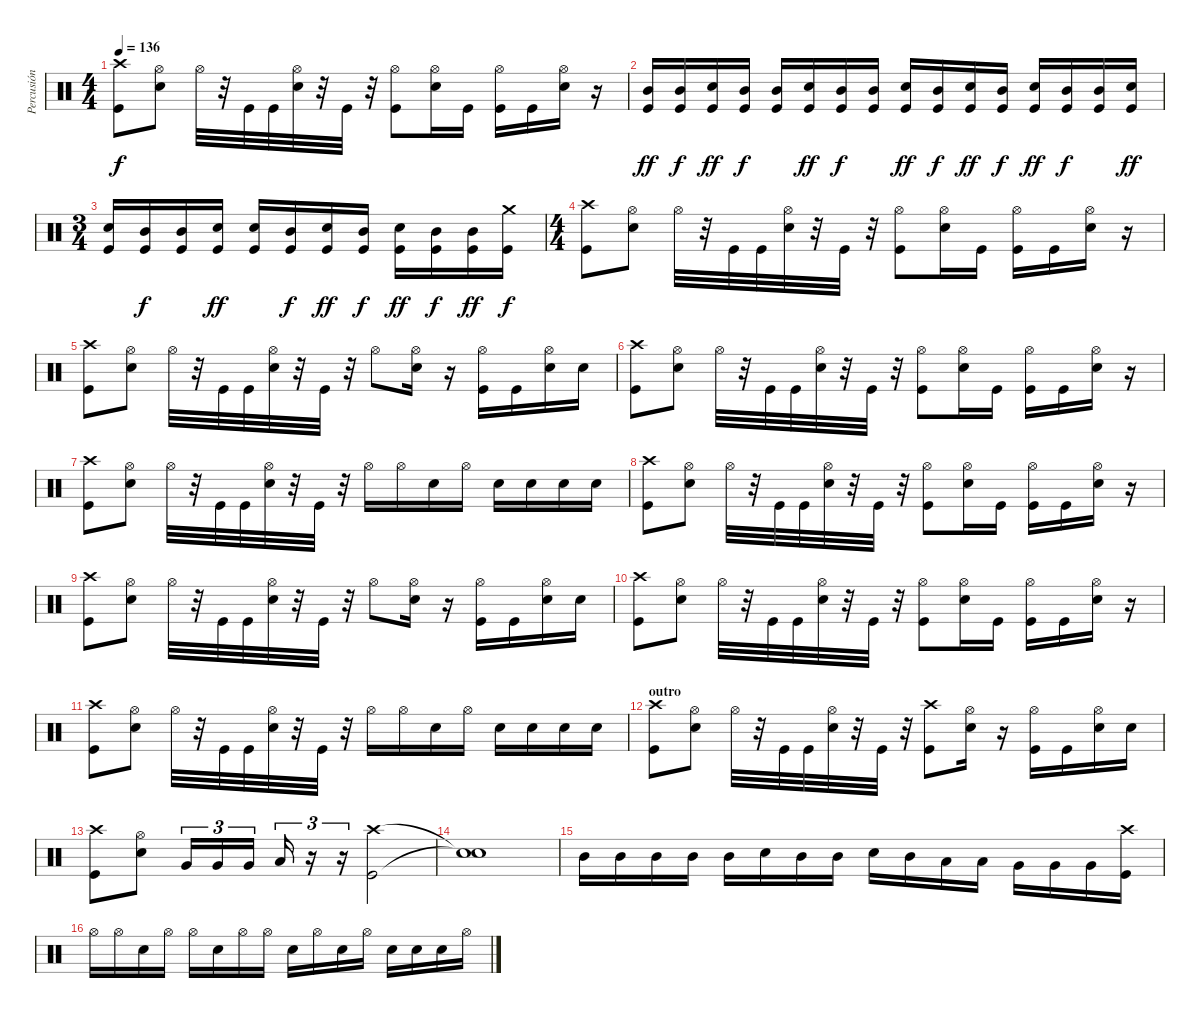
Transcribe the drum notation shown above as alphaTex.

\track ("Percusión" "Percusión") {instrument percussion}
\staff {score}
\articulation defaults
\ts (4 4)
\tempo 136
\clef neutral
\ks c
("Crash high (hit)" "Kick (hit)").8{dy f} ("Hi-Hat (open)" "Snare (hit) 2").8 "Hi-Hat (open)".32 r.32 "Kick (hit)".32 "Kick (hit)".32 ("Hi-Hat (open)" "Snare (hit) 2").32 r.32 "Kick (hit)".32 r.32 ("Hi-Hat (open)" "Kick (hit)").8 ("Hi-Hat (open)" "Snare (hit) 2").16 "Kick (hit)".16 ("Hi-Hat (open)" "Kick (hit)").16 "Kick (hit)".16 ("Hi-Hat (open)" "Snare (hit) 2").16 r.16 |
("Mid Tom (hit)" "Kick (hit)").16{dy ff} ("Mid Tom (hit)" "Kick (hit)").16{dy f} ("Electric Snare (hit)" "Kick (hit)").16{dy ff} ("Mid Tom (hit)" "Kick (hit)").16{dy f} ("Mid Tom (hit)" "Kick (hit)").16 ("Electric Snare (hit)" "Kick (hit)").16{dy ff} ("Mid Tom (hit)" "Kick (hit)").16{dy f} ("Mid Tom (hit)" "Kick (hit)").16 ("Electric Snare (hit)" "Kick (hit)").16{dy ff} ("Mid Tom (hit)" "Kick (hit)").16{dy f} ("Electric Snare (hit)" "Kick (hit)").16{dy ff} ("Mid Tom (hit)" "Kick (hit)").16{dy f} ("Electric Snare (hit)" "Kick (hit)").16{dy ff} ("Mid Tom (hit)" "Kick (hit)").16{dy f} ("Mid Tom (hit)" "Kick (hit)").16 ("Electric Snare (hit)" "Kick (hit)").16{dy ff} |
\ts (3 4)
("Electric Snare (hit)" "Kick (hit)").16 ("Mid Tom (hit)" "Kick (hit)").16{dy f} ("Mid Tom (hit)" "Kick (hit)").16 ("Electric Snare (hit)" "Kick (hit)").16{dy ff} ("Electric Snare (hit)" "Kick (hit)").16 ("Mid Tom (hit)" "Kick (hit)").16{dy f} ("Electric Snare (hit)" "Kick (hit)").16{dy ff} ("Mid Tom (hit)" "Kick (hit)").16{dy f} ("Electric Snare (hit)" "Kick (hit)").16{dy ff} ("Mid Tom (hit)" "Kick (hit)").16{dy f} ("Mid Tom (hit)" "Kick (hit)").16{dy ff} ("Crash medium (hit)" "Kick (hit)").16{dy f} |
\ts (4 4)
("Crash high (hit)" "Kick (hit)").8 ("Hi-Hat (open)" "Snare (hit) 2").8 "Hi-Hat (open)".32 r.32 "Kick (hit)".32 "Kick (hit)".32 ("Hi-Hat (open)" "Snare (hit) 2").32 r.32 "Kick (hit)".32 r.32 ("Hi-Hat (open)" "Kick (hit)").8 ("Hi-Hat (open)" "Snare (hit) 2").16 "Kick (hit)".16 ("Hi-Hat (open)" "Kick (hit)").16 "Kick (hit)".16 ("Hi-Hat (open)" "Snare (hit) 2").16 r.16 |
("Crash high (hit)" "Kick (hit)").8 ("Hi-Hat (open)" "Snare (hit) 2").8 "Hi-Hat (open)".32 r.32 "Kick (hit)".32 "Kick (hit)".32 ("Hi-Hat (open)" "Snare (hit) 2").32 r.32 "Kick (hit)".32 r.32 "Hi-Hat (open)".8 ("Hi-Hat (open)" "Snare (hit) 2").16 r.16 ("Hi-Hat (open)" "Kick (hit)").16 "Kick (hit)".16 ("Hi-Hat (open)" "Snare (hit) 2").16 "Snare (hit) 2".16 |
("Crash high (hit)" "Kick (hit)").8 ("Hi-Hat (open)" "Snare (hit) 2").8 "Hi-Hat (open)".32 r.32 "Kick (hit)".32 "Kick (hit)".32 ("Hi-Hat (open)" "Snare (hit) 2").32 r.32 "Kick (hit)".32 r.32 ("Hi-Hat (open)" "Kick (hit)").8 ("Hi-Hat (open)" "Snare (hit) 2").16 "Kick (hit)".16 ("Hi-Hat (open)" "Kick (hit)").16 "Kick (hit)".16 ("Hi-Hat (open)" "Snare (hit) 2").16 r.16 |
("Crash high (hit)" "Kick (hit)").8 ("Hi-Hat (open)" "Snare (hit) 2").8 "Hi-Hat (open)".32 r.32 "Kick (hit)".32 "Kick (hit)".32 ("Hi-Hat (open)" "Snare (hit) 2").32 r.32 "Kick (hit)".32 r.32 "Hi-Hat (open)".16 "Hi-Hat (open)".16 "Snare (hit) 2".16 "Hi-Hat (open)".16 "Snare (hit) 2".16 "Snare (hit) 2".16 "Snare (hit) 2".16 "Snare (hit) 2".16 |
("Crash high (hit)" "Kick (hit)").8 ("Hi-Hat (open)" "Snare (hit) 2").8 "Hi-Hat (open)".32 r.32 "Kick (hit)".32 "Kick (hit)".32 ("Hi-Hat (open)" "Snare (hit) 2").32 r.32 "Kick (hit)".32 r.32 ("Hi-Hat (open)" "Kick (hit)").8 ("Hi-Hat (open)" "Snare (hit) 2").16 "Kick (hit)".16 ("Hi-Hat (open)" "Kick (hit)").16 "Kick (hit)".16 ("Hi-Hat (open)" "Snare (hit) 2").16 r.16 |
("Crash high (hit)" "Kick (hit)").8 ("Hi-Hat (open)" "Snare (hit) 2").8 "Hi-Hat (open)".32 r.32 "Kick (hit)".32 "Kick (hit)".32 ("Hi-Hat (open)" "Snare (hit) 2").32 r.32 "Kick (hit)".32 r.32 "Hi-Hat (open)".8 ("Hi-Hat (open)" "Snare (hit) 2").16 r.16 ("Hi-Hat (open)" "Kick (hit)").16 "Kick (hit)".16 ("Hi-Hat (open)" "Snare (hit) 2").16 "Snare (hit) 2".16 |
("Crash high (hit)" "Kick (hit)").8 ("Hi-Hat (open)" "Snare (hit) 2").8 "Hi-Hat (open)".32 r.32 "Kick (hit)".32 "Kick (hit)".32 ("Hi-Hat (open)" "Snare (hit) 2").32 r.32 "Kick (hit)".32 r.32 ("Hi-Hat (open)" "Kick (hit)").8 ("Hi-Hat (open)" "Snare (hit) 2").16 "Kick (hit)".16 ("Hi-Hat (open)" "Kick (hit)").16 "Kick (hit)".16 ("Hi-Hat (open)" "Snare (hit) 2").16 r.16 |
("Crash high (hit)" "Kick (hit)").8 ("Hi-Hat (open)" "Snare (hit) 2").8 "Hi-Hat (open)".32 r.32 "Kick (hit)".32 "Kick (hit)".32 ("Hi-Hat (open)" "Snare (hit) 2").32 r.32 "Kick (hit)".32 r.32 "Hi-Hat (open)".16 "Hi-Hat (open)".16 "Snare (hit) 2".16 "Hi-Hat (open)".16 "Snare (hit) 2".16 "Snare (hit) 2".16 "Snare (hit) 2".16 "Snare (hit) 2".16 |
\section ("" "outro")
("Crash high (hit)" "Kick (hit)").8 ("Hi-Hat (open)" "Snare (hit) 2").8 "Hi-Hat (open)".32 r.32 "Kick (hit)".32 "Kick (hit)".32 ("Hi-Hat (open)" "Snare (hit) 2").32 r.32 "Kick (hit)".32 r.32 ("Crash high (hit)" "Kick (hit)").8 ("Hi-Hat (open)" "Snare (hit) 2").16 r.16 ("Hi-Hat (open)" "Kick (hit)").16 "Kick (hit)".16 ("Hi-Hat (open)" "Snare (hit) 2").16 "Snare (hit) 2".16 |
("Crash high (hit)" "Kick (hit)").8 ("Hi-Hat (open)" "Snare (hit) 2").8 "Very Low Tom (hit)".16{tu (3 2)} "Very Low Tom (hit)".16{tu (3 2)} "Very Low Tom (hit)".16{tu (3 2)} "Low Tom (hit)".16{tu (3 2)} r.16{tu (3 2)} r.16{tu (3 2)} ("Crash high (hit)" "Kick (hit)").2 |
("Snare (hit)"{t} "Snare (hit)"{t}).1 |
"Mid Tom (hit)".16 "Mid Tom (hit)".16 "Mid Tom (hit)".16 "Mid Tom (hit)".16 "Mid Tom (hit)".16 "Snare (hit) 2".16 "Mid Tom (hit)".16 "Mid Tom (hit)".16 "Snare (hit) 2".16 "Mid Tom (hit)".16 "Low Tom (hit)".16 "Low Tom (hit)".16 "Very Low Tom (hit)".16 "Very Low Tom (hit)".16 "Very Low Tom (hit)".16 ("Crash high (hit)" "Kick (hit)").16 |
"Hi-Hat (open)".16 "Hi-Hat (open)".16 "Snare (hit) 2".16 "Hi-Hat (open)".16 "Hi-Hat (open)".16 "Snare (hit) 2".16 "Hi-Hat (open)".16 "Hi-Hat (open)".16 "Snare (hit) 2".16 "Hi-Hat (open)".16 "Snare (hit) 2".16 "Hi-Hat (open)".16 "Snare (hit) 2".16 "Snare (hit) 2".16 "Snare (hit) 2".16 "Hi-Hat (open)".16
